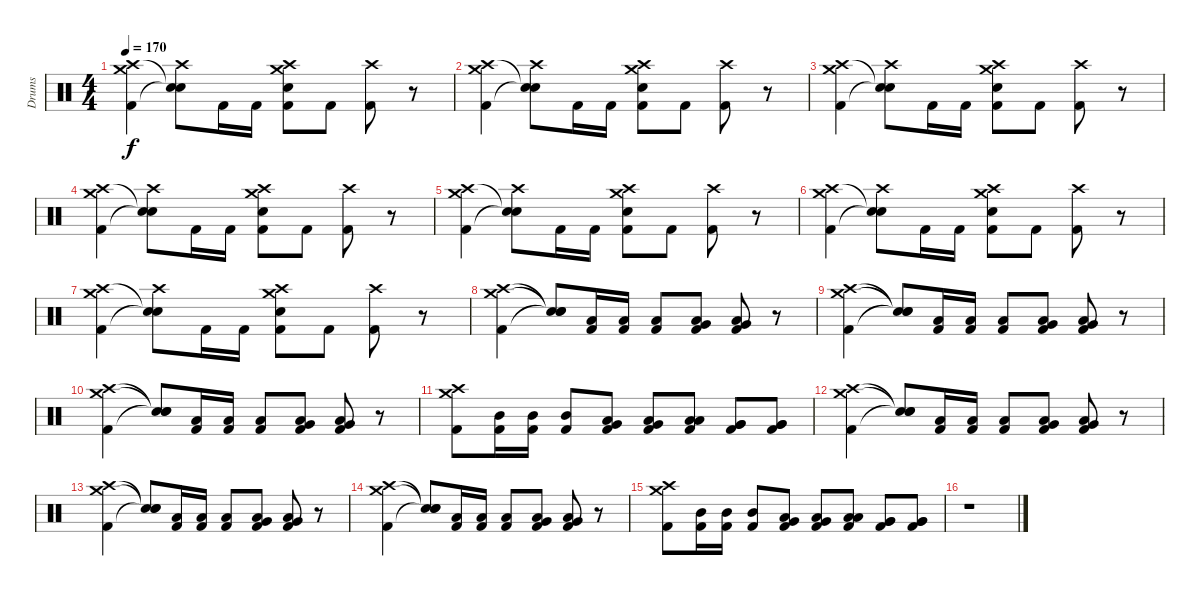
\track ("Drums" "Drums") {instrument percussion}
\staff {score}
\articulation defaults
\ts (4 4)
\tempo 170
\clef neutral
\ks c
("Crash medium (hit)" "Crash high (hit)" "Kick (hit) 2").4{dy f} ("Crash high (hit)" "Snare (hit)"{t} "Snare (hit)"{t}).8 "Kick (hit) 2".16 "Kick (hit) 2".16 ("Crash high (hit)" "Snare (hit) 2" "Crash medium (hit)" "Kick (hit) 2").8 "Kick (hit) 2".8 ("Crash high (hit)" "Kick (hit) 2").8 r.8 |
("Crash medium (hit)" "Crash high (hit)" "Kick (hit) 2").4 ("Crash high (hit)" "Snare (hit)"{t} "Snare (hit)"{t}).8 "Kick (hit) 2".16 "Kick (hit) 2".16 ("Crash high (hit)" "Snare (hit) 2" "Crash medium (hit)" "Kick (hit) 2").8 "Kick (hit) 2".8 ("Crash high (hit)" "Kick (hit) 2").8 r.8 |
("Crash medium (hit)" "Crash high (hit)" "Kick (hit) 2").4 ("Crash high (hit)" "Snare (hit)"{t} "Snare (hit)"{t}).8 "Kick (hit) 2".16 "Kick (hit) 2".16 ("Crash high (hit)" "Snare (hit) 2" "Crash medium (hit)" "Kick (hit) 2").8 "Kick (hit) 2".8 ("Crash high (hit)" "Kick (hit) 2").8 r.8 |
("Crash medium (hit)" "Crash high (hit)" "Kick (hit) 2").4 ("Crash high (hit)" "Snare (hit)"{t} "Snare (hit)"{t}).8 "Kick (hit) 2".16 "Kick (hit) 2".16 ("Crash high (hit)" "Snare (hit) 2" "Crash medium (hit)" "Kick (hit) 2").8 "Kick (hit) 2".8 ("Crash high (hit)" "Kick (hit) 2").8 r.8 |
("Crash medium (hit)" "Crash high (hit)" "Kick (hit) 2").4 ("Crash high (hit)" "Snare (hit)"{t} "Snare (hit)"{t}).8 "Kick (hit) 2".16 "Kick (hit) 2".16 ("Crash high (hit)" "Snare (hit) 2" "Crash medium (hit)" "Kick (hit) 2").8 "Kick (hit) 2".8 ("Crash high (hit)" "Kick (hit) 2").8 r.8 |
("Crash medium (hit)" "Crash high (hit)" "Kick (hit) 2").4 ("Crash high (hit)" "Snare (hit)"{t} "Snare (hit)"{t}).8 "Kick (hit) 2".16 "Kick (hit) 2".16 ("Crash high (hit)" "Snare (hit) 2" "Crash medium (hit)" "Kick (hit) 2").8 "Kick (hit) 2".8 ("Crash high (hit)" "Kick (hit) 2").8 r.8 |
("Crash medium (hit)" "Crash high (hit)" "Kick (hit) 2").4 ("Crash high (hit)" "Snare (hit)"{t} "Snare (hit)"{t}).8 "Kick (hit) 2".16 "Kick (hit) 2".16 ("Crash high (hit)" "Snare (hit) 2" "Crash medium (hit)" "Kick (hit) 2").8 "Kick (hit) 2".8 ("Crash high (hit)" "Kick (hit) 2").8 r.8 |
("Crash medium (hit)" "Crash high (hit)" "Kick (hit) 2").4 ("Snare (hit)"{t} "Snare (hit)"{t} "Snare (hit)"{t}).8 ("Low Tom (hit)" "Kick (hit) 2").16 ("Low Tom (hit)" "Kick (hit) 2").16 ("Low Tom (hit)" "Kick (hit) 2").8 ("Low Tom (hit)" "Very Low Tom (hit)" "Kick (hit) 2").8 ("Low Tom (hit)" "Very Low Tom (hit)" "Kick (hit) 2").8 r.8 |
("Crash medium (hit)" "Crash high (hit)" "Kick (hit) 2").4 ("Snare (hit)"{t} "Snare (hit)"{t} "Snare (hit)"{t}).8 ("Low Tom (hit)" "Kick (hit) 2").16 ("Low Tom (hit)" "Kick (hit) 2").16 ("Low Tom (hit)" "Kick (hit) 2").8 ("Low Tom (hit)" "Very Low Tom (hit)" "Kick (hit) 2").8 ("Low Tom (hit)" "Very Low Tom (hit)" "Kick (hit) 2").8 r.8 |
("Crash medium (hit)" "Crash high (hit)" "Kick (hit) 2").4 ("Snare (hit)"{t} "Snare (hit)"{t} "Snare (hit)"{t}).8 ("Low Tom (hit)" "Kick (hit) 2").16 ("Low Tom (hit)" "Kick (hit) 2").16 ("Low Tom (hit)" "Kick (hit) 2").8 ("Low Tom (hit)" "Very Low Tom (hit)" "Kick (hit) 2").8 ("Low Tom (hit)" "Very Low Tom (hit)" "Kick (hit) 2").8 r.8 |
("Crash medium (hit)" "Crash high (hit)" "Kick (hit) 2").8 ("Mid Tom (hit)" "Kick (hit) 2").16 ("Mid Tom (hit)" "Kick (hit) 2").16 ("Mid Tom (hit)" "Kick (hit) 2").8 ("Low Tom (hit)" "Very Low Tom (hit)" "Kick (hit) 2").8 ("Low Tom (hit)" "Very Low Tom (hit)" "Kick (hit) 2").8 ("Low Tom (hit)" "Low Tom (hit)" "Kick (hit) 2").8 ("Very Low Tom (hit)" "Very Low Tom (hit)" "Kick (hit) 2").8 ("Very Low Tom (hit)" "Very Low Tom (hit)" "Kick (hit) 2").8 |
("Crash medium (hit)" "Crash high (hit)" "Kick (hit) 2").4 ("Snare (hit)"{t} "Snare (hit)"{t} "Snare (hit)"{t}).8 ("Low Tom (hit)" "Kick (hit) 2").16 ("Low Tom (hit)" "Kick (hit) 2").16 ("Low Tom (hit)" "Kick (hit) 2").8 ("Low Tom (hit)" "Very Low Tom (hit)" "Kick (hit) 2").8 ("Low Tom (hit)" "Very Low Tom (hit)" "Kick (hit) 2").8 r.8 |
("Crash medium (hit)" "Crash high (hit)" "Kick (hit) 2").4 ("Snare (hit)"{t} "Snare (hit)"{t} "Snare (hit)"{t}).8 ("Low Tom (hit)" "Kick (hit) 2").16 ("Low Tom (hit)" "Kick (hit) 2").16 ("Low Tom (hit)" "Kick (hit) 2").8 ("Low Tom (hit)" "Very Low Tom (hit)" "Kick (hit) 2").8 ("Low Tom (hit)" "Very Low Tom (hit)" "Kick (hit) 2").8 r.8 |
("Crash medium (hit)" "Crash high (hit)" "Kick (hit) 2").4 ("Snare (hit)"{t} "Snare (hit)"{t} "Snare (hit)"{t}).8 ("Low Tom (hit)" "Kick (hit) 2").16 ("Low Tom (hit)" "Kick (hit) 2").16 ("Low Tom (hit)" "Kick (hit) 2").8 ("Low Tom (hit)" "Very Low Tom (hit)" "Kick (hit) 2").8 ("Low Tom (hit)" "Very Low Tom (hit)" "Kick (hit) 2").8 r.8 |
("Crash medium (hit)" "Crash high (hit)" "Kick (hit) 2").8 ("Mid Tom (hit)" "Kick (hit) 2").16 ("Mid Tom (hit)" "Kick (hit) 2").16 ("Mid Tom (hit)" "Kick (hit) 2").8 ("Low Tom (hit)" "Very Low Tom (hit)" "Kick (hit) 2").8 ("Low Tom (hit)" "Very Low Tom (hit)" "Kick (hit) 2").8 ("Low Tom (hit)" "Low Tom (hit)" "Kick (hit) 2").8 ("Very Low Tom (hit)" "Very Low Tom (hit)" "Kick (hit) 2").8 ("Very Low Tom (hit)" "Very Low Tom (hit)" "Kick (hit) 2").8 |
r.1
